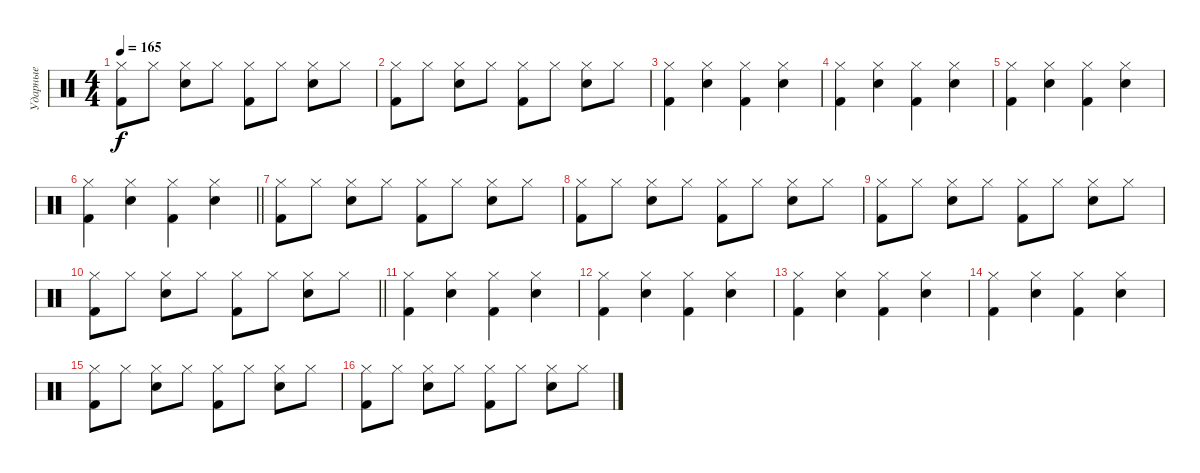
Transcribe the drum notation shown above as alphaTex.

\track ("Ударные" "Ударные") {instrument percussion}
\staff {score}
\articulation defaults
\ts (4 4)
\tempo 165
\clef neutral
\ks c
("Hi-Hat (closed)" "Kick (hit) 2").8{dy f} "Hi-Hat (closed)".8 ("Hi-Hat (closed)" "Electric Snare (hit)").8 "Hi-Hat (closed)".8 ("Hi-Hat (closed)" "Kick (hit) 2").8 "Hi-Hat (closed)".8 ("Hi-Hat (closed)" "Snare (hit) 2").8 "Hi-Hat (closed)".8 |
("Hi-Hat (closed)" "Kick (hit) 2").8 "Hi-Hat (closed)".8 ("Hi-Hat (closed)" "Electric Snare (hit)").8 "Hi-Hat (closed)".8 ("Hi-Hat (closed)" "Kick (hit) 2").8 "Hi-Hat (closed)".8 ("Hi-Hat (closed)" "Snare (hit) 2").8 "Hi-Hat (closed)".8 |
("Kick (hit) 2" "Hi-Hat (closed)").4 ("Hi-Hat (closed)" "Electric Snare (hit)").4 ("Hi-Hat (closed)" "Kick (hit) 2").4 ("Hi-Hat (closed)" "Electric Snare (hit)").4 |
("Kick (hit) 2" "Hi-Hat (closed)").4 ("Hi-Hat (closed)" "Electric Snare (hit)").4 ("Hi-Hat (closed)" "Kick (hit) 2").4 ("Hi-Hat (closed)" "Electric Snare (hit)").4 |
("Kick (hit) 2" "Hi-Hat (closed)").4 ("Hi-Hat (closed)" "Electric Snare (hit)").4 ("Hi-Hat (closed)" "Kick (hit) 2").4 ("Hi-Hat (closed)" "Electric Snare (hit)").4 |
\barLineRight lightlight
("Kick (hit) 2" "Hi-Hat (closed)").4 ("Hi-Hat (closed)" "Electric Snare (hit)").4 ("Hi-Hat (closed)" "Kick (hit) 2").4 ("Hi-Hat (closed)" "Electric Snare (hit)").4 |
("Hi-Hat (closed)" "Kick (hit) 2").8 "Hi-Hat (closed)".8 ("Hi-Hat (closed)" "Electric Snare (hit)").8 "Hi-Hat (closed)".8 ("Hi-Hat (closed)" "Kick (hit) 2").8 "Hi-Hat (closed)".8 ("Hi-Hat (closed)" "Snare (hit) 2").8 "Hi-Hat (closed)".8 |
("Hi-Hat (closed)" "Kick (hit) 2").8 "Hi-Hat (closed)".8 ("Hi-Hat (closed)" "Electric Snare (hit)").8 "Hi-Hat (closed)".8 ("Hi-Hat (closed)" "Kick (hit) 2").8 "Hi-Hat (closed)".8 ("Hi-Hat (closed)" "Snare (hit) 2").8 "Hi-Hat (closed)".8 |
("Hi-Hat (closed)" "Kick (hit) 2").8 "Hi-Hat (closed)".8 ("Hi-Hat (closed)" "Electric Snare (hit)").8 "Hi-Hat (closed)".8 ("Hi-Hat (closed)" "Kick (hit) 2").8 "Hi-Hat (closed)".8 ("Hi-Hat (closed)" "Snare (hit) 2").8 "Hi-Hat (closed)".8 |
\barLineRight lightlight
("Hi-Hat (closed)" "Kick (hit) 2").8 "Hi-Hat (closed)".8 ("Hi-Hat (closed)" "Electric Snare (hit)").8 "Hi-Hat (closed)".8 ("Hi-Hat (closed)" "Kick (hit) 2").8 "Hi-Hat (closed)".8 ("Hi-Hat (closed)" "Snare (hit) 2").8 "Hi-Hat (closed)".8 |
("Kick (hit) 2" "Hi-Hat (closed)").4 ("Hi-Hat (closed)" "Electric Snare (hit)").4 ("Hi-Hat (closed)" "Kick (hit) 2").4 ("Hi-Hat (closed)" "Electric Snare (hit)").4 |
("Kick (hit) 2" "Hi-Hat (closed)").4 ("Hi-Hat (closed)" "Electric Snare (hit)").4 ("Hi-Hat (closed)" "Kick (hit) 2").4 ("Hi-Hat (closed)" "Electric Snare (hit)").4 |
("Kick (hit) 2" "Hi-Hat (closed)").4 ("Hi-Hat (closed)" "Electric Snare (hit)").4 ("Hi-Hat (closed)" "Kick (hit) 2").4 ("Hi-Hat (closed)" "Electric Snare (hit)").4 |
("Kick (hit) 2" "Hi-Hat (closed)").4 ("Hi-Hat (closed)" "Electric Snare (hit)").4 ("Hi-Hat (closed)" "Kick (hit) 2").4 ("Hi-Hat (closed)" "Electric Snare (hit)").4 |
("Hi-Hat (closed)" "Kick (hit) 2").8 "Hi-Hat (closed)".8 ("Hi-Hat (closed)" "Electric Snare (hit)").8 "Hi-Hat (closed)".8 ("Hi-Hat (closed)" "Kick (hit) 2").8 "Hi-Hat (closed)".8 ("Hi-Hat (closed)" "Snare (hit) 2").8 "Hi-Hat (closed)".8 |
("Hi-Hat (closed)" "Kick (hit) 2").8 "Hi-Hat (closed)".8 ("Hi-Hat (closed)" "Electric Snare (hit)").8 "Hi-Hat (closed)".8 ("Hi-Hat (closed)" "Kick (hit) 2").8 "Hi-Hat (closed)".8 ("Hi-Hat (closed)" "Snare (hit) 2").8 "Hi-Hat (closed)".8
